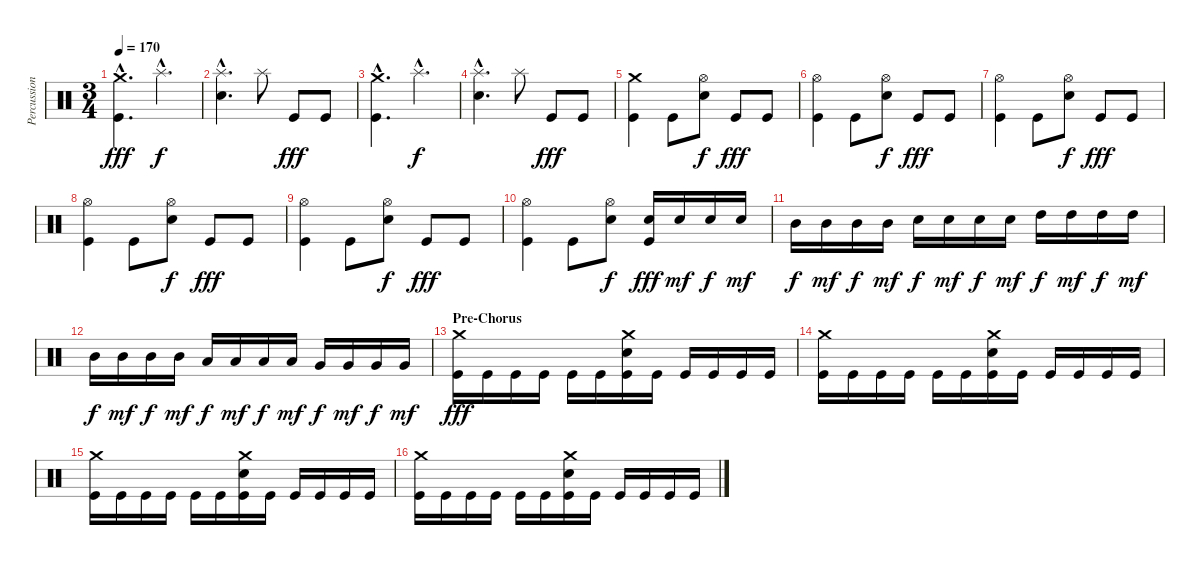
\track ("Percussion" "Percussion") {instrument percussion}
\staff {score}
\articulation defaults
\ts (3 4)
\tempo 170
\clef neutral
\ks c
("Crash medium (hit)"{hac} "Kick (hit)"{hac}).4{d dy fff} "Splash (hit)"{hac}.4{d dy f} |
("Splash (hit)"{hac} "Electric Snare (hit)"{hac}).4{d} "Splash (hit)".8 "Kick (hit)".8{dy fff} "Kick (hit)".8 |
("Crash medium (hit)"{hac} "Kick (hit)"{hac}).4{d} "Splash (hit)"{hac}.4{d dy f} |
("Splash (hit)"{hac} "Electric Snare (hit)"{hac}).4{d} "Splash (hit)".8 "Kick (hit)".8{dy fff} "Kick (hit)".8 |
("Crash medium (hit)" "Kick (hit)").4 "Kick (hit)".8 ("Hi-Hat (open)" "Electric Snare (hit)").8{dy f} "Kick (hit)".8{dy fff} "Kick (hit)".8 |
("Hi-Hat (open)" "Kick (hit)").4 "Kick (hit)".8 ("Hi-Hat (open)" "Electric Snare (hit)").8{dy f} "Kick (hit)".8{dy fff} "Kick (hit)".8 |
("Hi-Hat (open)" "Kick (hit)").4 "Kick (hit)".8 ("Hi-Hat (open)" "Electric Snare (hit)").8{dy f} "Kick (hit)".8{dy fff} "Kick (hit)".8 |
("Hi-Hat (open)" "Kick (hit)").4 "Kick (hit)".8 ("Hi-Hat (open)" "Electric Snare (hit)").8{dy f} "Kick (hit)".8{dy fff} "Kick (hit)".8 |
("Hi-Hat (open)" "Kick (hit)").4 "Kick (hit)".8 ("Hi-Hat (open)" "Electric Snare (hit)").8{dy f} "Kick (hit)".8{dy fff} "Kick (hit)".8 |
("Hi-Hat (open)" "Kick (hit)").4 "Kick (hit)".8 ("Hi-Hat (open)" "Electric Snare (hit)").8{dy f} ("Electric Snare (hit)" "Kick (hit)").16{dy fff} "Electric Snare (hit)".16{dy mf} "Electric Snare (hit)".16{dy f} "Electric Snare (hit)".16{dy mf} |
"Mid Tom (hit)".16{dy f} "Mid Tom (hit)".16{dy mf} "Mid Tom (hit)".16{dy f} "Mid Tom (hit)".16{dy mf} "Electric Snare (hit)".16{dy f} "Electric Snare (hit)".16{dy mf} "Electric Snare (hit)".16{dy f} "Electric Snare (hit)".16{dy mf} "High Tom (hit)".16{dy f} "High Tom (hit)".16{dy mf} "High Tom (hit)".16{dy f} "High Tom (hit)".16{dy mf} |
"Mid Tom (hit)".16{dy f} "Mid Tom (hit)".16{dy mf} "Mid Tom (hit)".16{dy f} "Mid Tom (hit)".16{dy mf} "Low Tom (hit)".16{dy f} "Low Tom (hit)".16{dy mf} "Low Tom (hit)".16{dy f} "Low Tom (hit)".16{dy mf} "Very Low Tom (hit)".16{dy f} "Very Low Tom (hit)".16{dy mf} "Very Low Tom (hit)".16{dy f} "Very Low Tom (hit)".16{dy mf} |
\section ("" "Pre-Chorus")
("Crash medium (hit)" "Kick (hit)").16{dy fff} "Kick (hit)".16 "Kick (hit)".16 "Kick (hit)".16 "Kick (hit)".16 "Kick (hit)".16 ("Crash medium (hit)" "Electric Snare (hit)" "Kick (hit)").16 "Kick (hit)".16 "Kick (hit)".16 "Kick (hit)".16 "Kick (hit)".16 "Kick (hit)".16 |
("Crash medium (hit)" "Kick (hit)").16 "Kick (hit)".16 "Kick (hit)".16 "Kick (hit)".16 "Kick (hit)".16 "Kick (hit)".16 ("Crash medium (hit)" "Electric Snare (hit)" "Kick (hit)").16 "Kick (hit)".16 "Kick (hit)".16 "Kick (hit)".16 "Kick (hit)".16 "Kick (hit)".16 |
("Crash medium (hit)" "Kick (hit)").16 "Kick (hit)".16 "Kick (hit)".16 "Kick (hit)".16 "Kick (hit)".16 "Kick (hit)".16 ("Crash medium (hit)" "Electric Snare (hit)" "Kick (hit)").16 "Kick (hit)".16 "Kick (hit)".16 "Kick (hit)".16 "Kick (hit)".16 "Kick (hit)".16 |
("Crash medium (hit)" "Kick (hit)").16 "Kick (hit)".16 "Kick (hit)".16 "Kick (hit)".16 "Kick (hit)".16 "Kick (hit)".16 ("Crash medium (hit)" "Electric Snare (hit)" "Kick (hit)").16 "Kick (hit)".16 "Kick (hit)".16 "Kick (hit)".16 "Kick (hit)".16 "Kick (hit)".16
